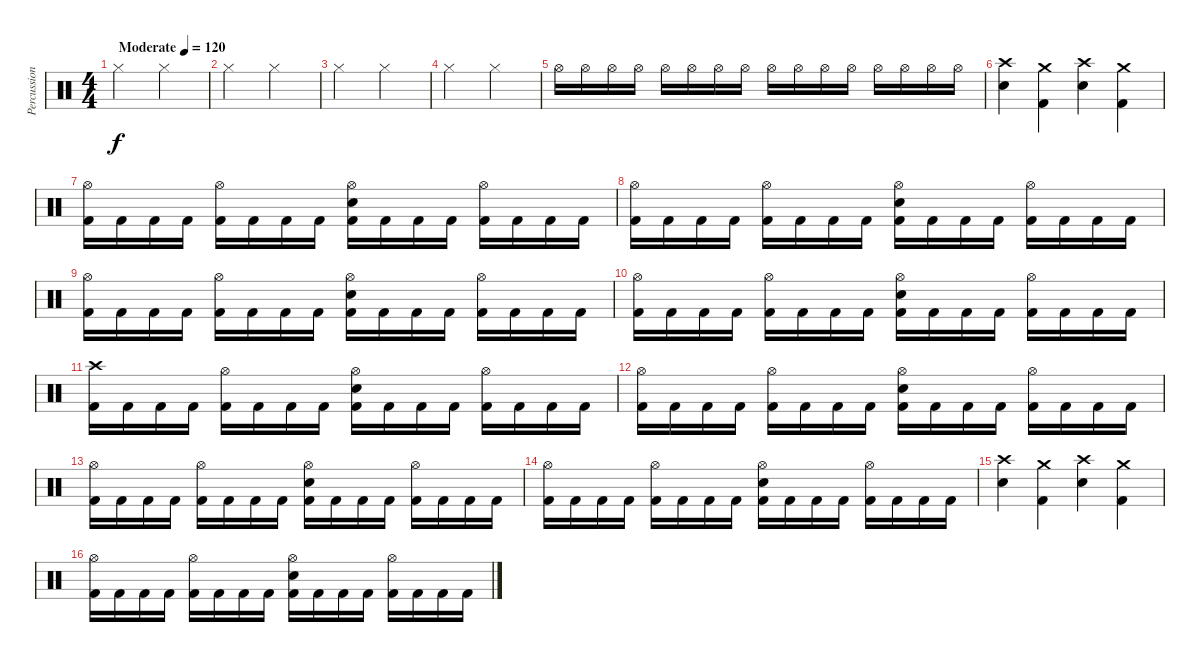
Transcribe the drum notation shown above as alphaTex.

\track ("Percussion" "Percussion") {instrument percussion}
\staff {score}
\articulation defaults
\ts (4 4)
\tempo (120 "Moderate")
\clef neutral
\ks c "Hi-Hat (closed)".2{dy f} "Hi-Hat (closed)".2
|
"Hi-Hat (closed)".2 "Hi-Hat (closed)".2 |
"Hi-Hat (closed)".2 "Hi-Hat (closed)".2 |
"Hi-Hat (closed)".2 "Hi-Hat (closed)".2 |
"Hi-Hat (open)".16{volume 4} "Hi-Hat (open)".16{volume 5} "Hi-Hat (open)".16{volume 9} "Hi-Hat (open)".16{volume 11} "Hi-Hat (open)".16 "Hi-Hat (open)".16{volume 12} "Hi-Hat (open)".16 "Hi-Hat (open)".16 "Hi-Hat (open)".16{volume 14} "Hi-Hat (open)".16 "Hi-Hat (open)".16 "Hi-Hat (open)".16{volume 16} "Hi-Hat (open)".16 "Hi-Hat (open)".16 "Hi-Hat (open)".16 "Hi-Hat (open)".16 |
("Crash high (hit)" "Electric Snare (hit)").4 ("Crash medium (hit)" "Kick (hit) 2").4 ("Crash high (hit)" "Electric Snare (hit)").4 ("Crash medium (hit)" "Kick (hit) 2").4 |
("Kick (hit) 2" "Hi-Hat (open)").16 "Kick (hit) 2".16 "Kick (hit) 2".16 "Kick (hit) 2".16 ("Kick (hit) 2" "Hi-Hat (open)").16 "Kick (hit) 2".16 "Kick (hit) 2".16 "Kick (hit) 2".16 ("Kick (hit) 2" "Hi-Hat (open)" "Electric Snare (hit)").16 "Kick (hit) 2".16 "Kick (hit) 2".16 "Kick (hit) 2".16 ("Kick (hit) 2" "Hi-Hat (open)").16 "Kick (hit) 2".16 "Kick (hit) 2".16 "Kick (hit) 2".16 |
("Kick (hit) 2" "Hi-Hat (open)").16 "Kick (hit) 2".16 "Kick (hit) 2".16 "Kick (hit) 2".16 ("Kick (hit) 2" "Hi-Hat (open)").16 "Kick (hit) 2".16 "Kick (hit) 2".16 "Kick (hit) 2".16 ("Kick (hit) 2" "Hi-Hat (open)" "Electric Snare (hit)").16 "Kick (hit) 2".16 "Kick (hit) 2".16 "Kick (hit) 2".16 ("Kick (hit) 2" "Hi-Hat (open)").16 "Kick (hit) 2".16 "Kick (hit) 2".16 "Kick (hit) 2".16 |
("Kick (hit) 2" "Hi-Hat (open)").16 "Kick (hit) 2".16 "Kick (hit) 2".16 "Kick (hit) 2".16 ("Kick (hit) 2" "Hi-Hat (open)").16 "Kick (hit) 2".16 "Kick (hit) 2".16 "Kick (hit) 2".16 ("Kick (hit) 2" "Hi-Hat (open)" "Electric Snare (hit)").16 "Kick (hit) 2".16 "Kick (hit) 2".16 "Kick (hit) 2".16 ("Kick (hit) 2" "Hi-Hat (open)").16 "Kick (hit) 2".16 "Kick (hit) 2".16 "Kick (hit) 2".16 |
("Kick (hit) 2" "Hi-Hat (open)").16 "Kick (hit) 2".16 "Kick (hit) 2".16 "Kick (hit) 2".16 ("Kick (hit) 2" "Hi-Hat (open)").16 "Kick (hit) 2".16 "Kick (hit) 2".16 "Kick (hit) 2".16 ("Kick (hit) 2" "Hi-Hat (open)" "Electric Snare (hit)").16 "Kick (hit) 2".16 "Kick (hit) 2".16 "Kick (hit) 2".16 ("Kick (hit) 2" "Hi-Hat (open)").16 "Kick (hit) 2".16 "Kick (hit) 2".16 "Kick (hit) 2".16 |
("Kick (hit) 2" "Crash high (hit)").16 "Kick (hit) 2".16 "Kick (hit) 2".16 "Kick (hit) 2".16 ("Kick (hit) 2" "Hi-Hat (open)").16 "Kick (hit) 2".16 "Kick (hit) 2".16 "Kick (hit) 2".16 ("Kick (hit) 2" "Hi-Hat (open)" "Electric Snare (hit)").16 "Kick (hit) 2".16 "Kick (hit) 2".16 "Kick (hit) 2".16 ("Kick (hit) 2" "Hi-Hat (open)").16 "Kick (hit) 2".16 "Kick (hit) 2".16 "Kick (hit) 2".16 |
("Kick (hit) 2" "Hi-Hat (open)").16 "Kick (hit) 2".16 "Kick (hit) 2".16 "Kick (hit) 2".16 ("Kick (hit) 2" "Hi-Hat (open)").16 "Kick (hit) 2".16 "Kick (hit) 2".16 "Kick (hit) 2".16 ("Kick (hit) 2" "Hi-Hat (open)" "Electric Snare (hit)").16 "Kick (hit) 2".16 "Kick (hit) 2".16 "Kick (hit) 2".16 ("Kick (hit) 2" "Hi-Hat (open)").16 "Kick (hit) 2".16 "Kick (hit) 2".16 "Kick (hit) 2".16 |
("Kick (hit) 2" "Hi-Hat (open)").16 "Kick (hit) 2".16 "Kick (hit) 2".16 "Kick (hit) 2".16 ("Kick (hit) 2" "Hi-Hat (open)").16 "Kick (hit) 2".16 "Kick (hit) 2".16 "Kick (hit) 2".16 ("Kick (hit) 2" "Hi-Hat (open)" "Electric Snare (hit)").16 "Kick (hit) 2".16 "Kick (hit) 2".16 "Kick (hit) 2".16 ("Kick (hit) 2" "Hi-Hat (open)").16 "Kick (hit) 2".16 "Kick (hit) 2".16 "Kick (hit) 2".16 |
("Kick (hit) 2" "Hi-Hat (open)").16 "Kick (hit) 2".16 "Kick (hit) 2".16 "Kick (hit) 2".16 ("Kick (hit) 2" "Hi-Hat (open)").16 "Kick (hit) 2".16 "Kick (hit) 2".16 "Kick (hit) 2".16 ("Kick (hit) 2" "Hi-Hat (open)" "Electric Snare (hit)").16 "Kick (hit) 2".16 "Kick (hit) 2".16 "Kick (hit) 2".16 ("Kick (hit) 2" "Hi-Hat (open)").16 "Kick (hit) 2".16 "Kick (hit) 2".16 "Kick (hit) 2".16 |
("Crash high (hit)" "Electric Snare (hit)").4 ("Crash medium (hit)" "Kick (hit) 2").4 ("Crash high (hit)" "Electric Snare (hit)").4 ("Crash medium (hit)" "Kick (hit) 2").4 |
("Kick (hit) 2" "Hi-Hat (open)").16 "Kick (hit) 2".16 "Kick (hit) 2".16 "Kick (hit) 2".16 ("Kick (hit) 2" "Hi-Hat (open)").16 "Kick (hit) 2".16 "Kick (hit) 2".16 "Kick (hit) 2".16 ("Kick (hit) 2" "Hi-Hat (open)" "Electric Snare (hit)").16 "Kick (hit) 2".16 "Kick (hit) 2".16 "Kick (hit) 2".16 ("Kick (hit) 2" "Hi-Hat (open)").16 "Kick (hit) 2".16 "Kick (hit) 2".16 "Kick (hit) 2".16
